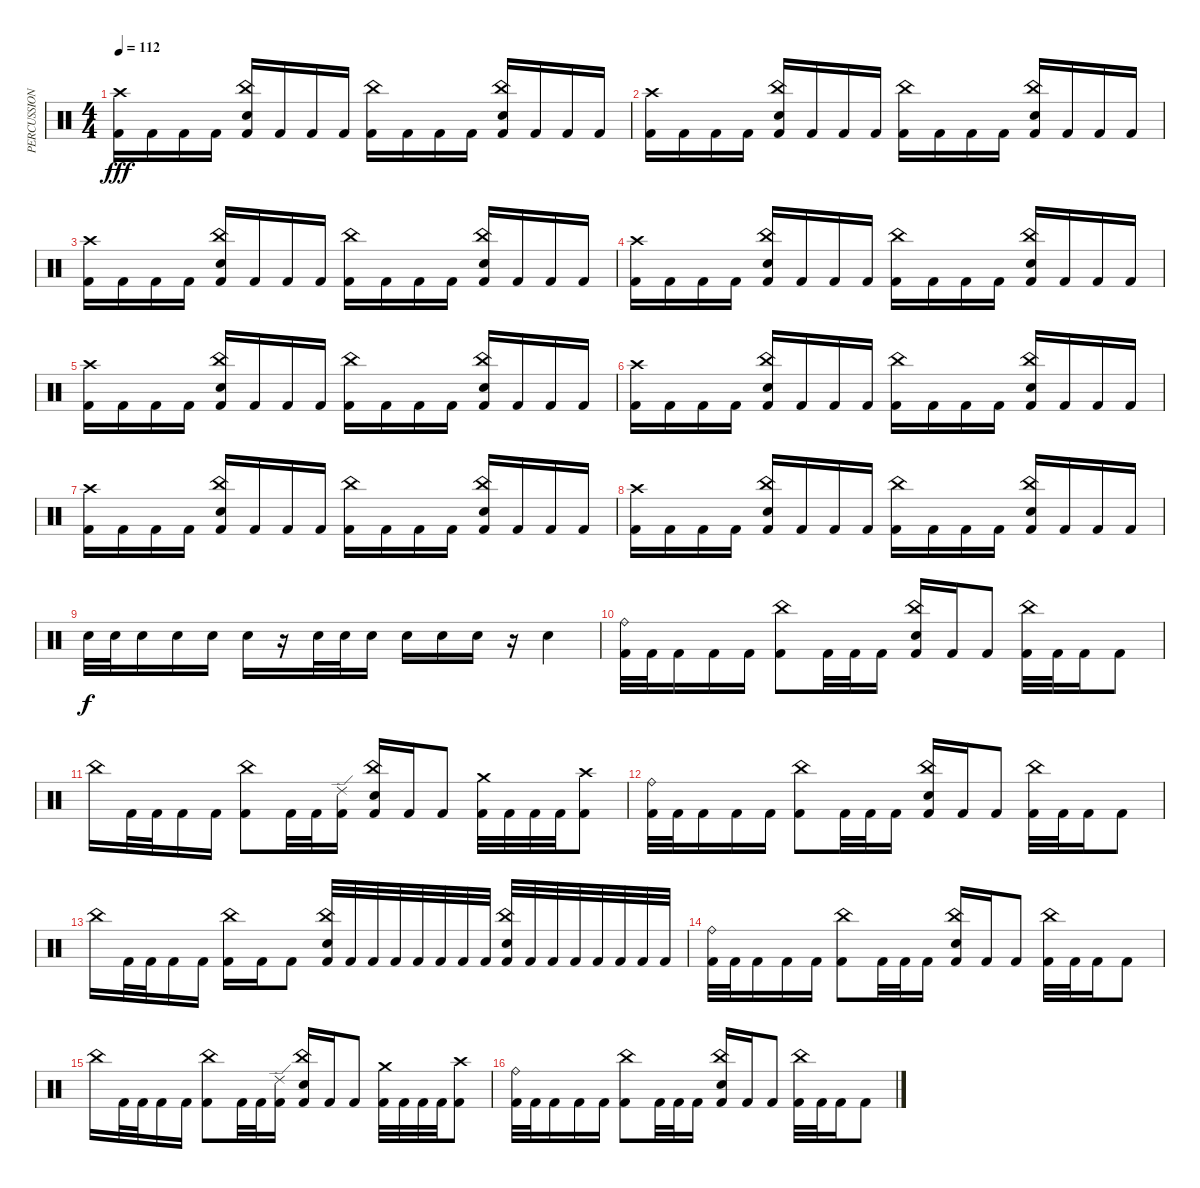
\track ("PERCUSSION" "PERCUSSION") {instrument percussion}
\staff {score}
\articulation defaults
\ts (4 4)
\tempo 112
\clef neutral
\ks c
("Crash high (hit)" "Kick (hit) 2").16{dy fff} "Kick (hit) 2".16 "Kick (hit) 2".16 "Kick (hit) 2".16 ("China (hit)" "Electric Snare (hit)" "Kick (hit) 2").16 "Kick (hit) 2".16 "Kick (hit) 2".16 "Kick (hit) 2".16 ("China (hit)" "Kick (hit) 2").16 "Kick (hit) 2".16 "Kick (hit) 2".16 "Kick (hit) 2".16 ("China (hit)" "Electric Snare (hit)" "Kick (hit) 2").16 "Kick (hit) 2".16 "Kick (hit) 2".16 "Kick (hit) 2".16 |
("Crash high (hit)" "Kick (hit) 2").16 "Kick (hit) 2".16 "Kick (hit) 2".16 "Kick (hit) 2".16 ("China (hit)" "Electric Snare (hit)" "Kick (hit) 2").16 "Kick (hit) 2".16 "Kick (hit) 2".16 "Kick (hit) 2".16 ("China (hit)" "Kick (hit) 2").16 "Kick (hit) 2".16 "Kick (hit) 2".16 "Kick (hit) 2".16 ("China (hit)" "Electric Snare (hit)" "Kick (hit) 2").16 "Kick (hit) 2".16 "Kick (hit) 2".16 "Kick (hit) 2".16 |
("Crash high (hit)" "Kick (hit) 2").16 "Kick (hit) 2".16 "Kick (hit) 2".16 "Kick (hit) 2".16 ("China (hit)" "Electric Snare (hit)" "Kick (hit) 2").16 "Kick (hit) 2".16 "Kick (hit) 2".16 "Kick (hit) 2".16 ("China (hit)" "Kick (hit) 2").16 "Kick (hit) 2".16 "Kick (hit) 2".16 "Kick (hit) 2".16 ("China (hit)" "Electric Snare (hit)" "Kick (hit) 2").16 "Kick (hit) 2".16 "Kick (hit) 2".16 "Kick (hit) 2".16 |
("Crash high (hit)" "Kick (hit) 2").16 "Kick (hit) 2".16 "Kick (hit) 2".16 "Kick (hit) 2".16 ("China (hit)" "Electric Snare (hit)" "Kick (hit) 2").16 "Kick (hit) 2".16 "Kick (hit) 2".16 "Kick (hit) 2".16 ("China (hit)" "Kick (hit) 2").16 "Kick (hit) 2".16 "Kick (hit) 2".16 "Kick (hit) 2".16 ("China (hit)" "Electric Snare (hit)" "Kick (hit) 2").16 "Kick (hit) 2".16 "Kick (hit) 2".16 "Kick (hit) 2".16 |
("Crash high (hit)" "Kick (hit) 2").16 "Kick (hit) 2".16 "Kick (hit) 2".16 "Kick (hit) 2".16 ("China (hit)" "Electric Snare (hit)" "Kick (hit) 2").16 "Kick (hit) 2".16 "Kick (hit) 2".16 "Kick (hit) 2".16 ("China (hit)" "Kick (hit) 2").16 "Kick (hit) 2".16 "Kick (hit) 2".16 "Kick (hit) 2".16 ("China (hit)" "Electric Snare (hit)" "Kick (hit) 2").16 "Kick (hit) 2".16 "Kick (hit) 2".16 "Kick (hit) 2".16 |
("Crash high (hit)" "Kick (hit) 2").16 "Kick (hit) 2".16 "Kick (hit) 2".16 "Kick (hit) 2".16 ("China (hit)" "Electric Snare (hit)" "Kick (hit) 2").16 "Kick (hit) 2".16 "Kick (hit) 2".16 "Kick (hit) 2".16 ("China (hit)" "Kick (hit) 2").16 "Kick (hit) 2".16 "Kick (hit) 2".16 "Kick (hit) 2".16 ("China (hit)" "Electric Snare (hit)" "Kick (hit) 2").16 "Kick (hit) 2".16 "Kick (hit) 2".16 "Kick (hit) 2".16 |
("Crash high (hit)" "Kick (hit) 2").16 "Kick (hit) 2".16 "Kick (hit) 2".16 "Kick (hit) 2".16 ("China (hit)" "Electric Snare (hit)" "Kick (hit) 2").16 "Kick (hit) 2".16 "Kick (hit) 2".16 "Kick (hit) 2".16 ("China (hit)" "Kick (hit) 2").16 "Kick (hit) 2".16 "Kick (hit) 2".16 "Kick (hit) 2".16 ("China (hit)" "Electric Snare (hit)" "Kick (hit) 2").16 "Kick (hit) 2".16 "Kick (hit) 2".16 "Kick (hit) 2".16 |
("Crash high (hit)" "Kick (hit) 2").16 "Kick (hit) 2".16 "Kick (hit) 2".16 "Kick (hit) 2".16 ("China (hit)" "Electric Snare (hit)" "Kick (hit) 2").16 "Kick (hit) 2".16 "Kick (hit) 2".16 "Kick (hit) 2".16 ("China (hit)" "Kick (hit) 2").16 "Kick (hit) 2".16 "Kick (hit) 2".16 "Kick (hit) 2".16 ("China (hit)" "Electric Snare (hit)" "Kick (hit) 2").16 "Kick (hit) 2".16 "Kick (hit) 2".16 "Kick (hit) 2".16 |
"Electric Snare (hit)".32{dy f} "Electric Snare (hit)".32 "Electric Snare (hit)".16 "Electric Snare (hit)".16 "Electric Snare (hit)".16 "Electric Snare (hit)".16 r.16 "Electric Snare (hit)".32 "Electric Snare (hit)".32 "Electric Snare (hit)".16 "Electric Snare (hit)".16 "Electric Snare (hit)".16 "Electric Snare (hit)".16 r.16 "Electric Snare (hit)".4 |
("Ride (bell)" "Kick (hit) 2").32 "Kick (hit) 2".32 "Kick (hit) 2".16 "Kick (hit) 2".16 "Kick (hit) 2".16 ("China (hit)" "Kick (hit) 2").8 "Kick (hit) 2".32 "Kick (hit) 2".32 "Kick (hit) 2".16 ("China (hit)" "Electric Snare (hit)" "Kick (hit) 2").16 "Kick (hit) 2".16 "Kick (hit) 2".8 ("China (hit)" "Kick (hit) 2").32 "Kick (hit) 2".32 "Kick (hit) 2".16 "Kick (hit) 2".8 |
"China (hit)".16 "Kick (hit) 2".32 "Kick (hit) 2".32 "Kick (hit) 2".16 "Kick (hit) 2".16 ("China (hit)" "Kick (hit) 2").8 "Kick (hit) 2".32 "Kick (hit) 2".32 ("Ride (edge) 2" "Kick (hit) 2").16 ("China (hit)" "Electric Snare (hit)" "Kick (hit) 2").16 "Kick (hit) 2".16 "Kick (hit) 2".8 ("Crash medium (hit)" "Kick (hit) 2").32 "Kick (hit) 2".32 "Kick (hit) 2".32 "Kick (hit) 2".32 ("Crash high (hit)" "Kick (hit) 2").8 |
("Ride (bell)" "Kick (hit) 2").32 "Kick (hit) 2".32 "Kick (hit) 2".16 "Kick (hit) 2".16 "Kick (hit) 2".16 ("China (hit)" "Kick (hit) 2").8 "Kick (hit) 2".32 "Kick (hit) 2".32 "Kick (hit) 2".16 ("China (hit)" "Electric Snare (hit)" "Kick (hit) 2").16 "Kick (hit) 2".16 "Kick (hit) 2".8 ("China (hit)" "Kick (hit) 2").32 "Kick (hit) 2".32 "Kick (hit) 2".16 "Kick (hit) 2".8 |
"China (hit)".16 "Kick (hit) 2".32 "Kick (hit) 2".32 "Kick (hit) 2".16 "Kick (hit) 2".16 ("China (hit)" "Kick (hit) 2").16 "Kick (hit) 2".16 "Kick (hit) 2".8 ("China (hit)" "Electric Snare (hit)" "Kick (hit) 2").32 "Kick (hit) 2".32 "Kick (hit) 2".32 "Kick (hit) 2".32 "Kick (hit) 2".32 "Kick (hit) 2".32 "Kick (hit) 2".32 "Kick (hit) 2".32 ("China (hit)" "Electric Snare (hit)" "Kick (hit) 2").32 "Kick (hit) 2".32 "Kick (hit) 2".32 "Kick (hit) 2".32 "Kick (hit) 2".32 "Kick (hit) 2".32 "Kick (hit) 2".32 "Kick (hit) 2".32 |
("Ride (bell)" "Kick (hit) 2").32 "Kick (hit) 2".32 "Kick (hit) 2".16 "Kick (hit) 2".16 "Kick (hit) 2".16 ("China (hit)" "Kick (hit) 2").8 "Kick (hit) 2".32 "Kick (hit) 2".32 "Kick (hit) 2".16 ("China (hit)" "Electric Snare (hit)" "Kick (hit) 2").16 "Kick (hit) 2".16 "Kick (hit) 2".8 ("China (hit)" "Kick (hit) 2").32 "Kick (hit) 2".32 "Kick (hit) 2".16 "Kick (hit) 2".8 |
"China (hit)".16 "Kick (hit) 2".32 "Kick (hit) 2".32 "Kick (hit) 2".16 "Kick (hit) 2".16 ("China (hit)" "Kick (hit) 2").8 "Kick (hit) 2".32 "Kick (hit) 2".32 ("Ride (edge) 2" "Kick (hit) 2").16 ("China (hit)" "Electric Snare (hit)" "Kick (hit) 2").16 "Kick (hit) 2".16 "Kick (hit) 2".8 ("Crash medium (hit)" "Kick (hit) 2").32 "Kick (hit) 2".32 "Kick (hit) 2".32 "Kick (hit) 2".32 ("Crash high (hit)" "Kick (hit) 2").8 |
("Ride (bell)" "Kick (hit) 2").32 "Kick (hit) 2".32 "Kick (hit) 2".16 "Kick (hit) 2".16 "Kick (hit) 2".16 ("China (hit)" "Kick (hit) 2").8 "Kick (hit) 2".32 "Kick (hit) 2".32 "Kick (hit) 2".16 ("China (hit)" "Electric Snare (hit)" "Kick (hit) 2").16 "Kick (hit) 2".16 "Kick (hit) 2".8 ("China (hit)" "Kick (hit) 2").32 "Kick (hit) 2".32 "Kick (hit) 2".16 "Kick (hit) 2".8
